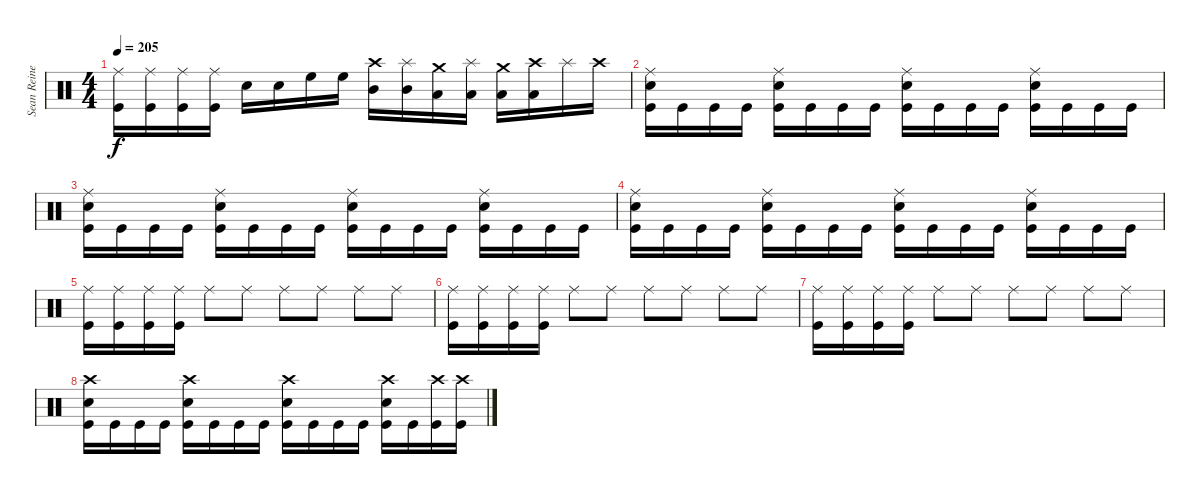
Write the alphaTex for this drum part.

\track ("Sean Reinert" "Sean Reine") {instrument percussion}
\staff {score}
\articulation defaults
\ts (4 4)
\tempo 205
\clef neutral
\ks c
("Ride (middle)" "Kick (hit)").16{dy f} ("Ride (middle)" "Kick (hit)").16 ("Ride (middle)" "Kick (hit)").16 ("Ride (middle)" "Kick (hit)").16 "Snare (hit) 2".16 "Snare (hit) 2".16 "High Floor Tom (hit)".16 "High Floor Tom (hit)".16 ("Crash high (hit)" "Mid Tom (hit)").16 ("Splash (hit)" "Mid Tom (hit)").16 ("Crash medium (hit)" "Low Tom (hit)").16 ("Splash (hit)" "Low Tom (hit)").16 ("Crash medium (hit)" "Low Floor Tom (hit)").16 ("Crash high (hit)" "Low Floor Tom (hit)").16 "Splash (hit)".16 "Crash high (hit)".16 |
("Ride (middle)" "Snare (hit) 2" "Kick (hit)").16 "Kick (hit)".16 "Kick (hit)".16 "Kick (hit)".16 ("Ride (middle)" "Snare (hit) 2" "Kick (hit)").16 "Kick (hit)".16 "Kick (hit)".16 "Kick (hit)".16 ("Ride (middle)" "Snare (hit) 2" "Kick (hit)").16 "Kick (hit)".16 "Kick (hit)".16 "Kick (hit)".16 ("Ride (middle)" "Snare (hit) 2" "Kick (hit)").16 "Kick (hit)".16 "Kick (hit)".16 "Kick (hit)".16 |
("Ride (middle)" "Snare (hit) 2" "Kick (hit)").16 "Kick (hit)".16 "Kick (hit)".16 "Kick (hit)".16 ("Ride (middle)" "Snare (hit) 2" "Kick (hit)").16 "Kick (hit)".16 "Kick (hit)".16 "Kick (hit)".16 ("Ride (middle)" "Snare (hit) 2" "Kick (hit)").16 "Kick (hit)".16 "Kick (hit)".16 "Kick (hit)".16 ("Ride (middle)" "Snare (hit) 2" "Kick (hit)").16 "Kick (hit)".16 "Kick (hit)".16 "Kick (hit)".16 |
("Ride (middle)" "Snare (hit) 2" "Kick (hit)").16 "Kick (hit)".16 "Kick (hit)".16 "Kick (hit)".16 ("Ride (middle)" "Snare (hit) 2" "Kick (hit)").16 "Kick (hit)".16 "Kick (hit)".16 "Kick (hit)".16 ("Ride (middle)" "Snare (hit) 2" "Kick (hit)").16 "Kick (hit)".16 "Kick (hit)".16 "Kick (hit)".16 ("Ride (middle)" "Snare (hit) 2" "Kick (hit)").16 "Kick (hit)".16 "Kick (hit)".16 "Kick (hit)".16 |
("Ride (middle)" "Kick (hit)").16 ("Ride (middle)" "Kick (hit)").16 ("Ride (middle)" "Kick (hit)").16 ("Ride (middle)" "Kick (hit)").16 "Ride (middle)".8 "Ride (middle)".8 "Ride (middle)".8 "Ride (middle)".8 "Ride (middle)".8 "Ride (middle)".8 |
("Ride (middle)" "Kick (hit)").16 ("Ride (middle)" "Kick (hit)").16 ("Ride (middle)" "Kick (hit)").16 ("Ride (middle)" "Kick (hit)").16 "Ride (middle)".8 "Ride (middle)".8 "Ride (middle)".8 "Ride (middle)".8 "Ride (middle)".8 "Ride (middle)".8 |
("Ride (middle)" "Kick (hit)").16 ("Ride (middle)" "Kick (hit)").16 ("Ride (middle)" "Kick (hit)").16 ("Ride (middle)" "Kick (hit)").16 "Ride (middle)".8 "Ride (middle)".8 "Ride (middle)".8 "Ride (middle)".8 "Ride (middle)".8 "Ride (middle)".8 |
("Crash high (hit)" "Snare (hit) 2" "Kick (hit)").16 "Kick (hit)".16 "Kick (hit)".16 "Kick (hit)".16 ("Crash high (hit)" "Snare (hit) 2" "Kick (hit)").16 "Kick (hit)".16 "Kick (hit)".16 "Kick (hit)".16 ("Crash high (hit)" "Snare (hit) 2" "Kick (hit)").16 "Kick (hit)".16 "Kick (hit)".16 "Kick (hit)".16 ("Crash high (hit)" "Snare (hit) 2" "Kick (hit)").16 "Kick (hit)".16 ("Crash high (hit)" "Kick (hit)").16 ("Crash high (hit)" "Kick (hit)").16
